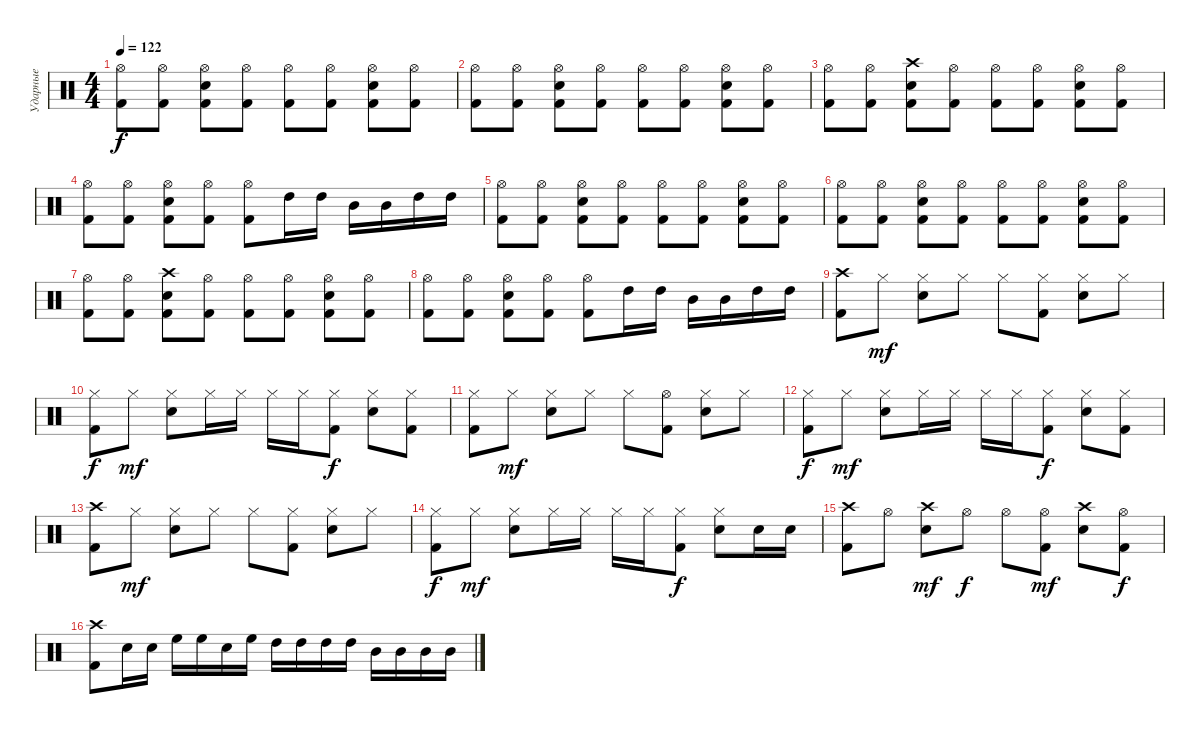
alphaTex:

\track ("Ударные" "Ударные") {instrument percussion}
\staff {score}
\articulation defaults
\ts (4 4)
\tempo 122
\clef neutral
\ks c
("Kick (hit) 2" "Hi-Hat (open)").8{dy f} ("Kick (hit) 2" "Hi-Hat (open)").8 ("Kick (hit) 2" "Snare (hit) 2" "Hi-Hat (open)").8 ("Kick (hit) 2" "Hi-Hat (open)").8 ("Kick (hit) 2" "Hi-Hat (open)").8 ("Kick (hit) 2" "Hi-Hat (open)").8 ("Kick (hit) 2" "Snare (hit) 2" "Hi-Hat (open)").8 ("Kick (hit) 2" "Hi-Hat (open)").8 |
("Kick (hit) 2" "Hi-Hat (open)").8 ("Kick (hit) 2" "Hi-Hat (open)").8 ("Kick (hit) 2" "Snare (hit) 2" "Hi-Hat (open)").8 ("Kick (hit) 2" "Hi-Hat (open)").8 ("Kick (hit) 2" "Hi-Hat (open)").8 ("Kick (hit) 2" "Hi-Hat (open)").8 ("Kick (hit) 2" "Snare (hit) 2" "Hi-Hat (open)").8 ("Kick (hit) 2" "Hi-Hat (open)").8 |
("Kick (hit) 2" "Hi-Hat (open)").8 ("Kick (hit) 2" "Hi-Hat (open)").8 ("Kick (hit) 2" "Snare (hit) 2" "Crash high (hit)").8 ("Kick (hit) 2" "Hi-Hat (open)").8 ("Kick (hit) 2" "Hi-Hat (open)").8 ("Kick (hit) 2" "Hi-Hat (open)").8 ("Kick (hit) 2" "Snare (hit) 2" "Hi-Hat (open)").8 ("Kick (hit) 2" "Hi-Hat (open)").8 |
("Kick (hit) 2" "Hi-Hat (open)").8 ("Kick (hit) 2" "Hi-Hat (open)").8 ("Kick (hit) 2" "Snare (hit) 2" "Hi-Hat (open)").8 ("Kick (hit) 2" "Hi-Hat (open)").8 ("Kick (hit) 2" "Hi-Hat (open)").8 "High Tom (hit)".16 "High Tom (hit)".16 "Mid Tom (hit)".16 "Mid Tom (hit)".16 "High Tom (hit)".16 "High Tom (hit)".16 |
("Kick (hit) 2" "Hi-Hat (open)").8 ("Kick (hit) 2" "Hi-Hat (open)").8 ("Kick (hit) 2" "Snare (hit) 2" "Hi-Hat (open)").8 ("Kick (hit) 2" "Hi-Hat (open)").8 ("Kick (hit) 2" "Hi-Hat (open)").8 ("Kick (hit) 2" "Hi-Hat (open)").8 ("Kick (hit) 2" "Snare (hit) 2" "Hi-Hat (open)").8 ("Kick (hit) 2" "Hi-Hat (open)").8 |
("Kick (hit) 2" "Hi-Hat (open)").8 ("Kick (hit) 2" "Hi-Hat (open)").8 ("Kick (hit) 2" "Snare (hit) 2" "Hi-Hat (open)").8 ("Kick (hit) 2" "Hi-Hat (open)").8 ("Kick (hit) 2" "Hi-Hat (open)").8 ("Kick (hit) 2" "Hi-Hat (open)").8 ("Kick (hit) 2" "Snare (hit) 2" "Hi-Hat (open)").8 ("Kick (hit) 2" "Hi-Hat (open)").8 |
("Kick (hit) 2" "Hi-Hat (open)").8 ("Kick (hit) 2" "Hi-Hat (open)").8 ("Kick (hit) 2" "Snare (hit) 2" "Crash high (hit)").8 ("Kick (hit) 2" "Hi-Hat (open)").8 ("Kick (hit) 2" "Hi-Hat (open)").8 ("Kick (hit) 2" "Hi-Hat (open)").8 ("Kick (hit) 2" "Snare (hit) 2" "Hi-Hat (open)").8 ("Kick (hit) 2" "Hi-Hat (open)").8 |
("Kick (hit) 2" "Hi-Hat (open)").8 ("Kick (hit) 2" "Hi-Hat (open)").8 ("Kick (hit) 2" "Snare (hit) 2" "Hi-Hat (open)").8 ("Kick (hit) 2" "Hi-Hat (open)").8 ("Kick (hit) 2" "Hi-Hat (open)").8 "High Tom (hit)".16 "High Tom (hit)".16 "Mid Tom (hit)".16 "Mid Tom (hit)".16 "High Tom (hit)".16 "High Tom (hit)".16 |
("Crash high (hit)" "Kick (hit) 2").8 "Hi-Hat (closed)".8{dy mf} ("Hi-Hat (closed)" "Snare (hit) 2").8 "Hi-Hat (closed)".8 "Hi-Hat (closed)".8 ("Hi-Hat (closed)" "Kick (hit) 2").8 ("Hi-Hat (closed)" "Snare (hit) 2").8 "Hi-Hat (closed)".8 |
("Hi-Hat (closed)" "Kick (hit) 2").8{dy f} "Hi-Hat (closed)".8{dy mf} ("Hi-Hat (closed)" "Snare (hit) 2").8 "Hi-Hat (closed)".16 "Hi-Hat (closed)".16 "Hi-Hat (closed)".16 "Hi-Hat (closed)".16 ("Hi-Hat (closed)" "Kick (hit) 2").8{dy f} ("Snare (hit) 2" "Hi-Hat (closed)").8 ("Kick (hit) 2" "Hi-Hat (closed)").8 |
("Hi-Hat (closed)" "Kick (hit) 2").8 "Hi-Hat (closed)".8{dy mf} ("Hi-Hat (closed)" "Snare (hit) 2").8 "Hi-Hat (closed)".8 "Hi-Hat (closed)".8 ("Hi-Hat (open)" "Kick (hit) 2").8 ("Hi-Hat (closed)" "Snare (hit) 2").8 "Hi-Hat (closed)".8 |
("Hi-Hat (closed)" "Kick (hit) 2").8{dy f} "Hi-Hat (closed)".8{dy mf} ("Hi-Hat (closed)" "Snare (hit) 2").8 "Hi-Hat (closed)".16 "Hi-Hat (closed)".16 "Hi-Hat (closed)".16 "Hi-Hat (closed)".16 ("Hi-Hat (closed)" "Kick (hit) 2").8{dy f} ("Snare (hit) 2" "Hi-Hat (closed)").8 ("Kick (hit) 2" "Hi-Hat (closed)").8 |
("Crash high (hit)" "Kick (hit) 2").8 "Hi-Hat (closed)".8{dy mf} ("Hi-Hat (closed)" "Snare (hit) 2").8 "Hi-Hat (closed)".8 "Hi-Hat (closed)".8 ("Hi-Hat (closed)" "Kick (hit) 2").8 ("Hi-Hat (closed)" "Snare (hit) 2").8 "Hi-Hat (closed)".8 |
("Hi-Hat (closed)" "Kick (hit) 2").8{dy f} "Hi-Hat (closed)".8{dy mf} ("Hi-Hat (closed)" "Snare (hit) 2").8 "Hi-Hat (closed)".16 "Hi-Hat (closed)".16 "Hi-Hat (closed)".16 "Hi-Hat (closed)".16 ("Hi-Hat (closed)" "Kick (hit) 2").8{dy f} ("Snare (hit) 2" "Hi-Hat (closed)").8 "Snare (hit) 2".16 "Snare (hit) 2".16 |
("Crash high (hit)" "Kick (hit) 2").8 "Hi-Hat (open)".8 ("Crash high (hit)" "Snare (hit) 2").8{dy mf} "Hi-Hat (open)".8{dy f} "Hi-Hat (open)".8 ("Hi-Hat (open)" "Kick (hit) 2").8{dy mf} ("Crash high (hit)" "Snare (hit) 2").8 ("Hi-Hat (open)" "Kick (hit) 2").8{dy f} |
("Kick (hit) 2" "Crash high (hit)").8 "Snare (hit) 2".16 "Snare (hit) 2".16 "High Floor Tom (hit)".16 "High Floor Tom (hit)".16 "Snare (hit) 2".16 "High Floor Tom (hit)".16 "High Tom (hit)".16 "High Tom (hit)".16 "High Tom (hit)".16 "High Tom (hit)".16 "Mid Tom (hit)".16 "Mid Tom (hit)".16 "Mid Tom (hit)".16 "Mid Tom (hit)".16
